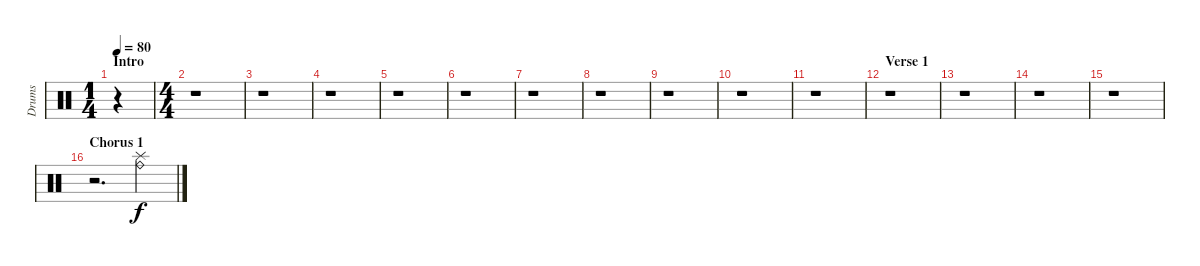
\track ("Drums" "Drums") {instrument percussion}
\staff {score}
\articulation defaults
\ts (1 4)
\section ("" "Intro")
\tempo 80
\clef neutral
\ks c
r.4{dy f} |
\ts (4 4)
r.1 |
r.1 |
r.1 |
r.1 |
r.1 |
r.1 |
r.1 |
r.1 |
r.1 |
r.1 |
\section ("" "Verse 1")
r.1 |
r.1 |
r.1 |
r.1 |
\section ("" "Chorus 1")
r.2{d} ("Ride (bell)" "Splash (hit)").4
